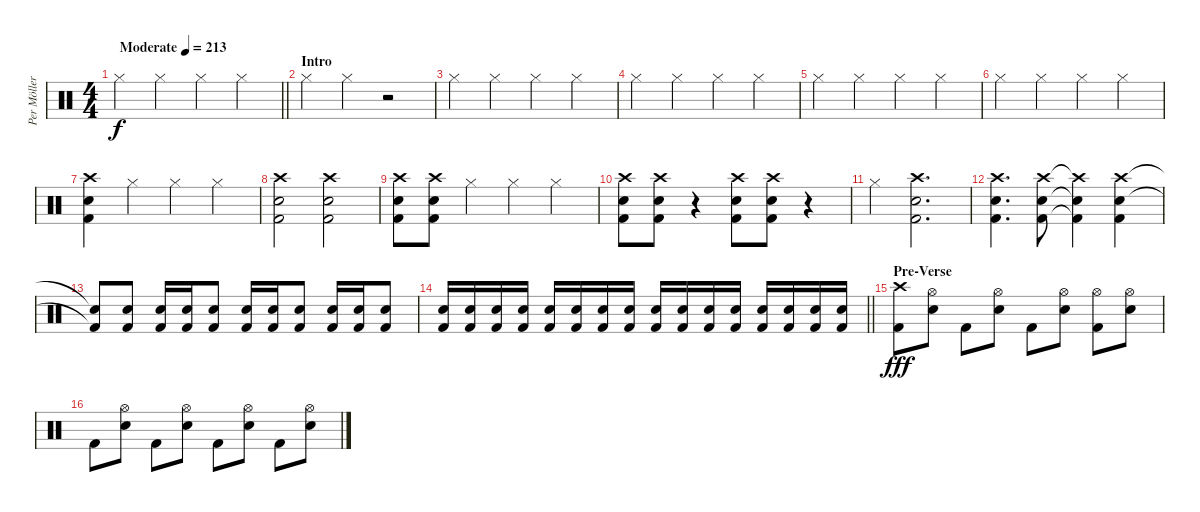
\track ("Per Möller Jensen" "Per Möller") {instrument percussion}
\staff {score}
\articulation defaults
\ts (4 4)
\tempo (213 "Moderate")
\clef neutral
\barLineRight lightlight
\ks c "Hi-Hat (closed)".4{dy f} "Hi-Hat (closed)".4 "Hi-Hat (closed)".4 "Hi-Hat (closed)".4
|
\section ("" "Intro")
"Hi-Hat (closed)".4 "Hi-Hat (closed)".4 r.2 |
"Hi-Hat (closed)".4 "Hi-Hat (closed)".4 "Hi-Hat (closed)".4 "Hi-Hat (closed)".4 |
"Hi-Hat (closed)".4 "Hi-Hat (closed)".4 "Hi-Hat (closed)".4 "Hi-Hat (closed)".4 |
"Hi-Hat (closed)".4 "Hi-Hat (closed)".4 "Hi-Hat (closed)".4 "Hi-Hat (closed)".4 |
"Hi-Hat (closed)".4 "Hi-Hat (closed)".4 "Hi-Hat (closed)".4 "Hi-Hat (closed)".4 |
("Crash high (hit)" "Electric Snare (hit)" "Kick (hit) 2").4 "Hi-Hat (closed)".4 "Hi-Hat (closed)".4 "Hi-Hat (closed)".4 |
("Crash high (hit)" "Electric Snare (hit)" "Kick (hit) 2").2 ("Crash high (hit)" "Electric Snare (hit)" "Kick (hit) 2").2 |
("Crash high (hit)" "Electric Snare (hit)" "Kick (hit) 2").8 ("Crash high (hit)" "Electric Snare (hit)" "Kick (hit) 2").8 "Hi-Hat (closed)".4 "Hi-Hat (closed)".4 "Hi-Hat (closed)".4 |
("Crash high (hit)" "Electric Snare (hit)" "Kick (hit) 2").8 ("Crash high (hit)" "Electric Snare (hit)" "Kick (hit) 2").8 r.4 ("Crash high (hit)" "Electric Snare (hit)" "Kick (hit) 2").8 ("Crash high (hit)" "Electric Snare (hit)" "Kick (hit) 2").8 r.4 |
"Hi-Hat (closed)".4 ("Crash high (hit)" "Electric Snare (hit)" "Kick (hit) 2").2{d} |
("Crash high (hit)" "Electric Snare (hit)" "Kick (hit) 2").4{d} ("Crash high (hit)" "Electric Snare (hit)" "Kick (hit) 2").8 ("Crash high (hit)"{t} "Electric Snare (hit)"{t} "Kick (hit) 2"{t}).4 ("Crash high (hit)" "Electric Snare (hit)" "Kick (hit) 2").4 |
("Electric Snare (hit)"{t} "Kick (hit) 2"{t}).8 ("Electric Snare (hit)" "Kick (hit) 2").8 ("Electric Snare (hit)" "Kick (hit) 2").16 ("Electric Snare (hit)" "Kick (hit) 2").16 ("Electric Snare (hit)" "Kick (hit) 2").8 ("Electric Snare (hit)" "Kick (hit) 2").16 ("Electric Snare (hit)" "Kick (hit) 2").16 ("Electric Snare (hit)" "Kick (hit) 2").8 ("Electric Snare (hit)" "Kick (hit) 2").16 ("Electric Snare (hit)" "Kick (hit) 2").16 ("Electric Snare (hit)" "Kick (hit) 2").8 |
\barLineRight lightlight
("Electric Snare (hit)" "Kick (hit) 2").16 ("Electric Snare (hit)" "Kick (hit) 2").16 ("Electric Snare (hit)" "Kick (hit) 2").16 ("Electric Snare (hit)" "Kick (hit) 2").16 ("Electric Snare (hit)" "Kick (hit) 2").16 ("Electric Snare (hit)" "Kick (hit) 2").16 ("Electric Snare (hit)" "Kick (hit) 2").16 ("Electric Snare (hit)" "Kick (hit) 2").16 ("Electric Snare (hit)" "Kick (hit) 2").16 ("Electric Snare (hit)" "Kick (hit) 2").16 ("Electric Snare (hit)" "Kick (hit) 2").16 ("Electric Snare (hit)" "Kick (hit) 2").16 ("Electric Snare (hit)" "Kick (hit) 2").16 ("Electric Snare (hit)" "Kick (hit) 2").16 ("Electric Snare (hit)" "Kick (hit) 2").16 ("Electric Snare (hit)" "Kick (hit) 2").16 |
\section ("" "Pre-Verse")
("Crash high (hit)" "Kick (hit) 2").8{dy fff} ("Hi-Hat (open)" "Electric Snare (hit)").8 "Kick (hit) 2".8 ("Hi-Hat (open)" "Electric Snare (hit)").8 "Kick (hit) 2".8 ("Hi-Hat (open)" "Electric Snare (hit)").8 ("Hi-Hat (open)" "Kick (hit) 2").8 ("Hi-Hat (open)" "Electric Snare (hit)").8 |
"Kick (hit) 2".8 ("Hi-Hat (open)" "Electric Snare (hit)").8 "Kick (hit) 2".8 ("Hi-Hat (open)" "Electric Snare (hit)").8 "Kick (hit) 2".8 ("Hi-Hat (open)" "Electric Snare (hit)").8 "Kick (hit) 2".8 ("Hi-Hat (open)" "Electric Snare (hit)").8
